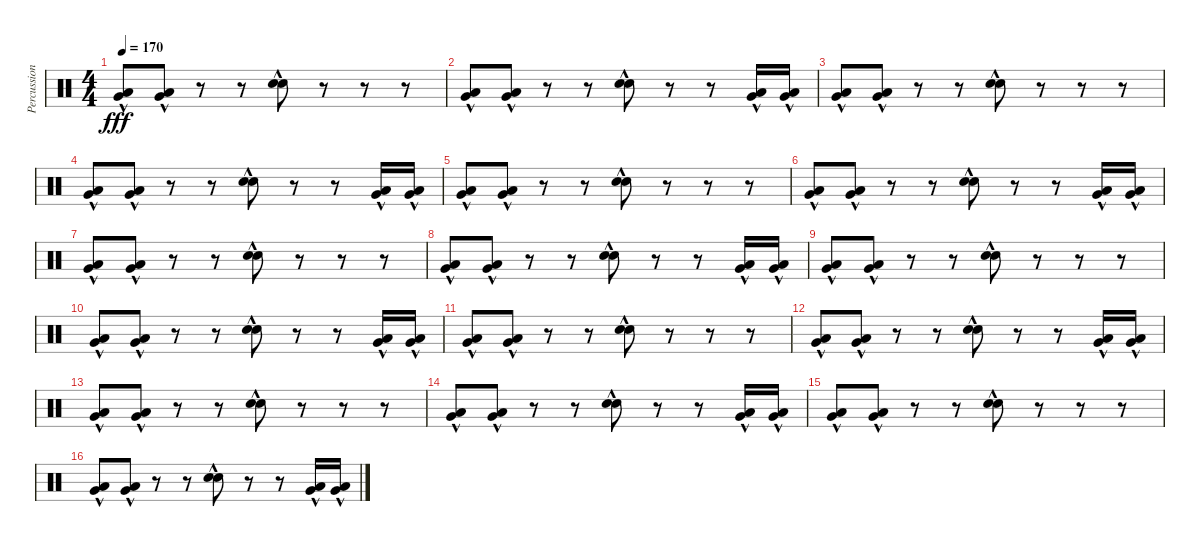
\track ("Percussion" "Percussion") {instrument percussion}
\staff {score}
\articulation defaults
\ts (4 4)
\tempo 170
\clef neutral
\ks c
("Low Floor Tom (hit)"{hac} "Very Low Tom (hit)"{hac}).8{dy fff} ("Low Floor Tom (hit)"{hac} "Very Low Tom (hit)"{hac}).8 r.8 r.8 ("Snare (hit) 2"{hac} "Electric Snare (hit)"{hac}).8 r.8 r.8 r.8 |
("Low Floor Tom (hit)"{hac} "Very Low Tom (hit)"{hac}).8 ("Low Floor Tom (hit)"{hac} "Very Low Tom (hit)"{hac}).8 r.8 r.8 ("Snare (hit) 2"{hac} "Electric Snare (hit)"{hac}).8 r.8 r.8 ("Low Floor Tom (hit)"{hac} "Very Low Tom (hit)"{hac}).16 ("Very Low Tom (hit)"{hac} "Low Floor Tom (hit)"{hac}).16 |
("Low Floor Tom (hit)"{hac} "Very Low Tom (hit)"{hac}).8 ("Low Floor Tom (hit)"{hac} "Very Low Tom (hit)"{hac}).8 r.8 r.8 ("Snare (hit) 2"{hac} "Electric Snare (hit)"{hac}).8 r.8 r.8 r.8 |
("Low Floor Tom (hit)"{hac} "Very Low Tom (hit)"{hac}).8 ("Low Floor Tom (hit)"{hac} "Very Low Tom (hit)"{hac}).8 r.8 r.8 ("Snare (hit) 2"{hac} "Electric Snare (hit)"{hac}).8 r.8 r.8 ("Low Floor Tom (hit)"{hac} "Very Low Tom (hit)"{hac}).16 ("Very Low Tom (hit)"{hac} "Low Floor Tom (hit)"{hac}).16 |
("Low Floor Tom (hit)"{hac} "Very Low Tom (hit)"{hac}).8 ("Low Floor Tom (hit)"{hac} "Very Low Tom (hit)"{hac}).8 r.8 r.8 ("Snare (hit) 2"{hac} "Electric Snare (hit)"{hac}).8 r.8 r.8 r.8 |
("Low Floor Tom (hit)"{hac} "Very Low Tom (hit)"{hac}).8 ("Low Floor Tom (hit)"{hac} "Very Low Tom (hit)"{hac}).8 r.8 r.8 ("Snare (hit) 2"{hac} "Electric Snare (hit)"{hac}).8 r.8 r.8 ("Low Floor Tom (hit)"{hac} "Very Low Tom (hit)"{hac}).16 ("Very Low Tom (hit)"{hac} "Low Floor Tom (hit)"{hac}).16 |
("Low Floor Tom (hit)"{hac} "Very Low Tom (hit)"{hac}).8 ("Low Floor Tom (hit)"{hac} "Very Low Tom (hit)"{hac}).8 r.8 r.8 ("Snare (hit) 2"{hac} "Electric Snare (hit)"{hac}).8 r.8 r.8 r.8 |
("Low Floor Tom (hit)"{hac} "Very Low Tom (hit)"{hac}).8 ("Low Floor Tom (hit)"{hac} "Very Low Tom (hit)"{hac}).8 r.8 r.8 ("Snare (hit) 2"{hac} "Electric Snare (hit)"{hac}).8 r.8 r.8 ("Low Floor Tom (hit)"{hac} "Very Low Tom (hit)"{hac}).16 ("Very Low Tom (hit)"{hac} "Low Floor Tom (hit)"{hac}).16 |
("Low Floor Tom (hit)"{hac} "Very Low Tom (hit)"{hac}).8 ("Low Floor Tom (hit)"{hac} "Very Low Tom (hit)"{hac}).8 r.8 r.8 ("Snare (hit) 2"{hac} "Electric Snare (hit)"{hac}).8 r.8 r.8 r.8 |
("Low Floor Tom (hit)"{hac} "Very Low Tom (hit)"{hac}).8 ("Low Floor Tom (hit)"{hac} "Very Low Tom (hit)"{hac}).8 r.8 r.8 ("Snare (hit) 2"{hac} "Electric Snare (hit)"{hac}).8 r.8 r.8 ("Low Floor Tom (hit)"{hac} "Very Low Tom (hit)"{hac}).16 ("Very Low Tom (hit)"{hac} "Low Floor Tom (hit)"{hac}).16 |
("Low Floor Tom (hit)"{hac} "Very Low Tom (hit)"{hac}).8 ("Low Floor Tom (hit)"{hac} "Very Low Tom (hit)"{hac}).8 r.8 r.8 ("Snare (hit) 2"{hac} "Electric Snare (hit)"{hac}).8 r.8 r.8 r.8 |
("Low Floor Tom (hit)"{hac} "Very Low Tom (hit)"{hac}).8 ("Low Floor Tom (hit)"{hac} "Very Low Tom (hit)"{hac}).8 r.8 r.8 ("Snare (hit) 2"{hac} "Electric Snare (hit)"{hac}).8 r.8 r.8 ("Low Floor Tom (hit)"{hac} "Very Low Tom (hit)"{hac}).16 ("Very Low Tom (hit)"{hac} "Low Floor Tom (hit)"{hac}).16 |
("Low Floor Tom (hit)"{hac} "Very Low Tom (hit)"{hac}).8 ("Low Floor Tom (hit)"{hac} "Very Low Tom (hit)"{hac}).8 r.8 r.8 ("Snare (hit) 2"{hac} "Electric Snare (hit)"{hac}).8 r.8 r.8 r.8 |
("Low Floor Tom (hit)"{hac} "Very Low Tom (hit)"{hac}).8 ("Low Floor Tom (hit)"{hac} "Very Low Tom (hit)"{hac}).8 r.8 r.8 ("Snare (hit) 2"{hac} "Electric Snare (hit)"{hac}).8 r.8 r.8 ("Low Floor Tom (hit)"{hac} "Very Low Tom (hit)"{hac}).16 ("Very Low Tom (hit)"{hac} "Low Floor Tom (hit)"{hac}).16 |
("Low Floor Tom (hit)"{hac} "Very Low Tom (hit)"{hac}).8 ("Low Floor Tom (hit)"{hac} "Very Low Tom (hit)"{hac}).8 r.8 r.8 ("Snare (hit) 2"{hac} "Electric Snare (hit)"{hac}).8 r.8 r.8 r.8 |
("Low Floor Tom (hit)"{hac} "Very Low Tom (hit)"{hac}).8 ("Low Floor Tom (hit)"{hac} "Very Low Tom (hit)"{hac}).8 r.8 r.8 ("Snare (hit) 2"{hac} "Electric Snare (hit)"{hac}).8 r.8 r.8 ("Low Floor Tom (hit)"{hac} "Very Low Tom (hit)"{hac}).16 ("Very Low Tom (hit)"{hac} "Low Floor Tom (hit)"{hac}).16
